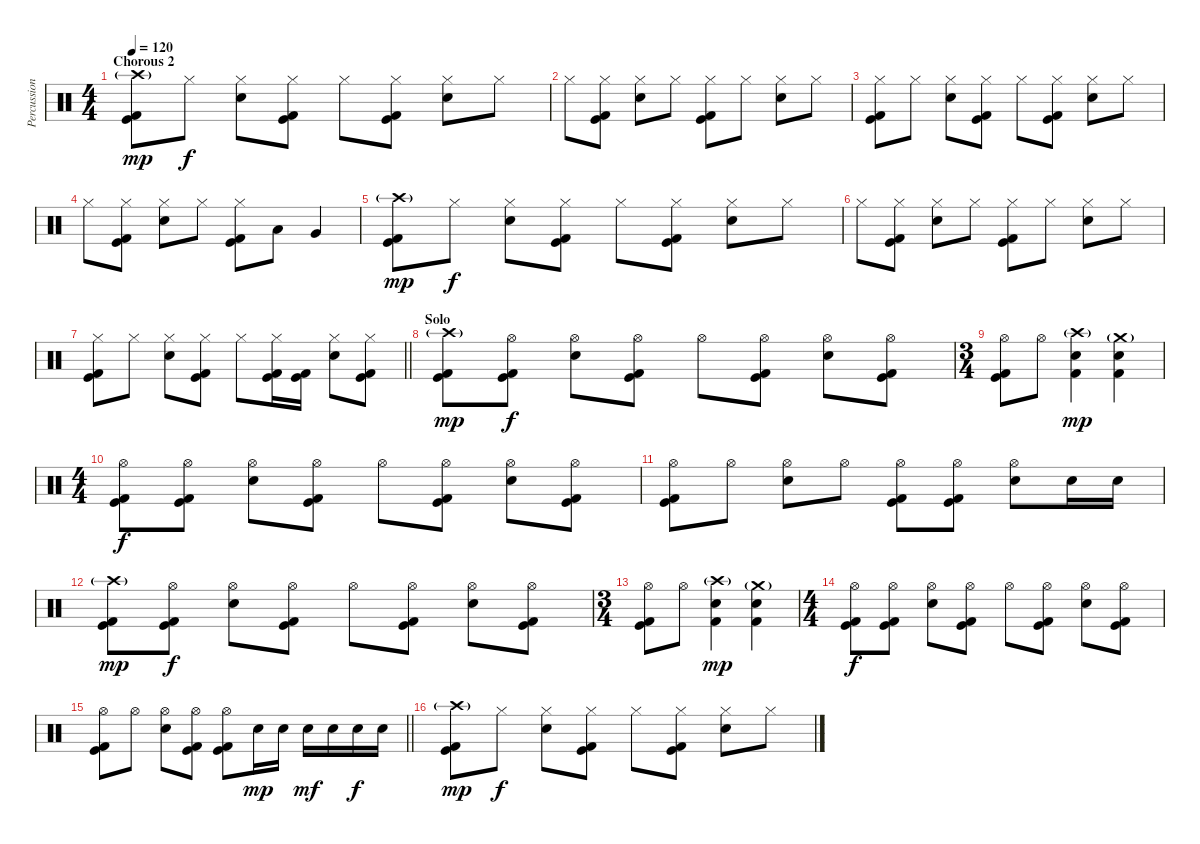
\track ("Percussion" "Percussion") {instrument percussion}
\staff {score}
\articulation defaults
\ts (4 4)
\section ("" "Chorous 2")
\tempo 120
\clef neutral
\ks c
("Crash high (hit)"{g} "Kick (hit)" "Kick (hit) 2").8{dy mp} "Hi-Hat (closed)".8{dy f} ("Hi-Hat (closed)" "Electric Snare (hit)").8 ("Hi-Hat (closed)" "Kick (hit)" "Kick (hit) 2").8 "Hi-Hat (closed)".8 ("Hi-Hat (closed)" "Kick (hit)" "Kick (hit) 2").8 ("Hi-Hat (closed)" "Electric Snare (hit)").8 "Hi-Hat (closed)".8 |
"Hi-Hat (closed)".8 ("Hi-Hat (closed)" "Kick (hit)" "Kick (hit) 2").8 ("Hi-Hat (closed)" "Electric Snare (hit)").8 "Hi-Hat (closed)".8 ("Hi-Hat (closed)" "Kick (hit)" "Kick (hit) 2").8 "Hi-Hat (closed)".8 ("Hi-Hat (closed)" "Electric Snare (hit)").8 "Hi-Hat (closed)".8 |
("Hi-Hat (closed)" "Kick (hit)" "Kick (hit) 2").8 "Hi-Hat (closed)".8 ("Hi-Hat (closed)" "Electric Snare (hit)").8 ("Hi-Hat (closed)" "Kick (hit)" "Kick (hit) 2").8 "Hi-Hat (closed)".8 ("Hi-Hat (closed)" "Kick (hit)" "Kick (hit) 2").8 ("Hi-Hat (closed)" "Electric Snare (hit)").8 "Hi-Hat (closed)".8 |
"Hi-Hat (closed)".8 ("Hi-Hat (closed)" "Kick (hit)" "Kick (hit) 2").8 ("Hi-Hat (closed)" "Electric Snare (hit)").8 "Hi-Hat (closed)".8 ("Hi-Hat (closed)" "Kick (hit)" "Kick (hit) 2").8 "Low Tom (hit)".8 "Very Low Tom (hit)".4 |
("Crash high (hit)"{g} "Kick (hit)" "Kick (hit) 2").8{dy mp} "Hi-Hat (closed)".8{dy f} ("Hi-Hat (closed)" "Electric Snare (hit)").8 ("Hi-Hat (closed)" "Kick (hit)" "Kick (hit) 2").8 "Hi-Hat (closed)".8 ("Hi-Hat (closed)" "Kick (hit)" "Kick (hit) 2").8 ("Hi-Hat (closed)" "Electric Snare (hit)").8 "Hi-Hat (closed)".8 |
"Hi-Hat (closed)".8 ("Hi-Hat (closed)" "Kick (hit)" "Kick (hit) 2").8 ("Hi-Hat (closed)" "Electric Snare (hit)").8 "Hi-Hat (closed)".8 ("Hi-Hat (closed)" "Kick (hit)" "Kick (hit) 2").8 "Hi-Hat (closed)".8 ("Hi-Hat (closed)" "Electric Snare (hit)").8 "Hi-Hat (closed)".8 |
\barLineRight lightlight
("Hi-Hat (closed)" "Kick (hit)" "Kick (hit) 2").8 "Hi-Hat (closed)".8 ("Hi-Hat (closed)" "Electric Snare (hit)").8 ("Hi-Hat (closed)" "Kick (hit)" "Kick (hit) 2").8 "Hi-Hat (closed)".8 ("Hi-Hat (closed)" "Kick (hit)" "Kick (hit) 2").16 ("Kick (hit)" "Kick (hit) 2").16 ("Hi-Hat (closed)" "Electric Snare (hit)").8 ("Hi-Hat (closed)" "Kick (hit)" "Kick (hit) 2").8 |
\section ("" "Solo")
("Crash high (hit)"{g} "Kick (hit)" "Kick (hit) 2").8{dy mp} ("Hi-Hat (open)" "Kick (hit)" "Kick (hit) 2").8{dy f} ("Hi-Hat (open)" "Electric Snare (hit)").8 ("Hi-Hat (open)" "Kick (hit)" "Kick (hit) 2").8 "Hi-Hat (open)".8 ("Hi-Hat (open)" "Kick (hit)" "Kick (hit) 2").8 ("Hi-Hat (open)" "Electric Snare (hit)").8 ("Hi-Hat (open)" "Kick (hit)" "Kick (hit) 2").8 |
\ts (3 4)
("Hi-Hat (open)" "Kick (hit)" "Kick (hit) 2").8 "Hi-Hat (open)".8 ("Crash high (hit)"{g} "Electric Snare (hit)" "Kick (hit) 2").4{dy mp} ("Crash medium (hit)"{g} "Electric Snare (hit)" "Kick (hit) 2").4 |
\ts (4 4)
("Hi-Hat (open)" "Kick (hit)" "Kick (hit) 2").8{dy f} ("Hi-Hat (open)" "Kick (hit)" "Kick (hit) 2").8 ("Hi-Hat (open)" "Electric Snare (hit)").8 ("Hi-Hat (open)" "Kick (hit)" "Kick (hit) 2").8 "Hi-Hat (open)".8 ("Hi-Hat (open)" "Kick (hit)" "Kick (hit) 2").8 ("Hi-Hat (open)" "Electric Snare (hit)").8 ("Hi-Hat (open)" "Kick (hit)" "Kick (hit) 2").8 |
("Hi-Hat (open)" "Kick (hit)" "Kick (hit) 2").8 "Hi-Hat (open)".8 ("Hi-Hat (open)" "Electric Snare (hit)").8 "Hi-Hat (open)".8 ("Hi-Hat (open)" "Kick (hit)" "Kick (hit) 2").8 ("Hi-Hat (open)" "Kick (hit)" "Kick (hit) 2").8 ("Hi-Hat (open)" "Electric Snare (hit)").8 "Electric Snare (hit)".16 "Electric Snare (hit)".16 |
("Crash high (hit)"{g} "Kick (hit)" "Kick (hit) 2").8{dy mp} ("Hi-Hat (open)" "Kick (hit)" "Kick (hit) 2").8{dy f} ("Hi-Hat (open)" "Electric Snare (hit)").8 ("Hi-Hat (open)" "Kick (hit)" "Kick (hit) 2").8 "Hi-Hat (open)".8 ("Hi-Hat (open)" "Kick (hit)" "Kick (hit) 2").8 ("Hi-Hat (open)" "Electric Snare (hit)").8 ("Hi-Hat (open)" "Kick (hit)" "Kick (hit) 2").8 |
\ts (3 4)
("Hi-Hat (open)" "Kick (hit)" "Kick (hit) 2").8 "Hi-Hat (open)".8 ("Crash high (hit)"{g} "Electric Snare (hit)" "Kick (hit) 2").4{dy mp} ("Crash medium (hit)"{g} "Electric Snare (hit)" "Kick (hit) 2").4 |
\ts (4 4)
("Hi-Hat (open)" "Kick (hit)" "Kick (hit) 2").8{dy f} ("Hi-Hat (open)" "Kick (hit)" "Kick (hit) 2").8 ("Hi-Hat (open)" "Electric Snare (hit)").8 ("Hi-Hat (open)" "Kick (hit)" "Kick (hit) 2").8 "Hi-Hat (open)".8 ("Hi-Hat (open)" "Kick (hit)" "Kick (hit) 2").8 ("Hi-Hat (open)" "Electric Snare (hit)").8 ("Hi-Hat (open)" "Kick (hit)" "Kick (hit) 2").8 |
\barLineRight lightlight
("Hi-Hat (open)" "Kick (hit)" "Kick (hit) 2").8 "Hi-Hat (open)".8 ("Hi-Hat (open)" "Electric Snare (hit)").8 ("Hi-Hat (open)" "Kick (hit)" "Kick (hit) 2").8 ("Hi-Hat (open)" "Kick (hit)" "Kick (hit) 2").8 "Electric Snare (hit)".16{dy mp} "Electric Snare (hit)".16 "Electric Snare (hit)".16{dy mf} "Electric Snare (hit)".16 "Electric Snare (hit)".16{dy f} "Electric Snare (hit)".16 |
\section ("" "")
("Crash high (hit)"{g} "Kick (hit)" "Kick (hit) 2").8{dy mp} "Hi-Hat (closed)".8{dy f} ("Hi-Hat (closed)" "Electric Snare (hit)").8 ("Hi-Hat (closed)" "Kick (hit)" "Kick (hit) 2").8 "Hi-Hat (closed)".8 ("Hi-Hat (closed)" "Kick (hit)" "Kick (hit) 2").8 ("Hi-Hat (closed)" "Electric Snare (hit)").8 "Hi-Hat (closed)".8
